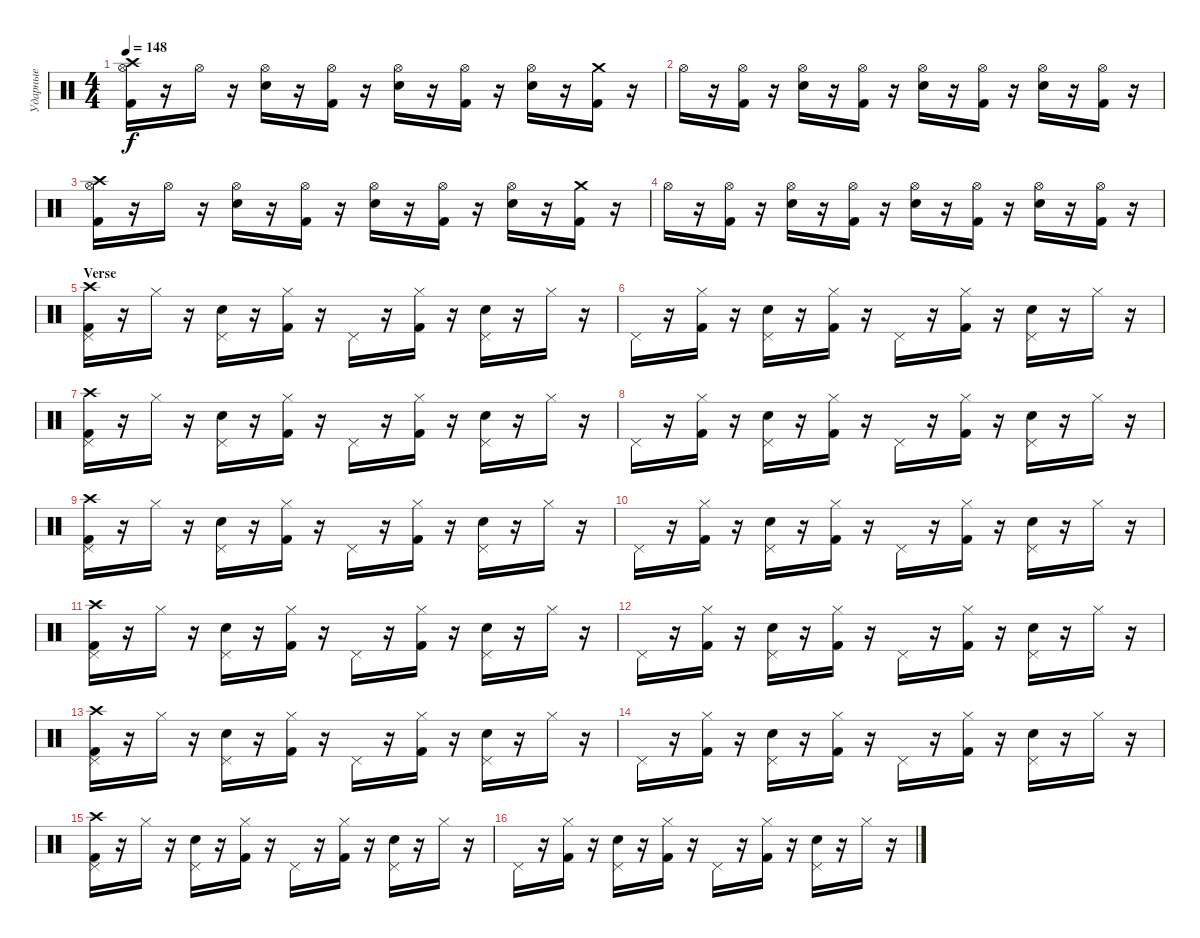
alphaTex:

\track ("Ударные" "Ударные") {instrument percussion}
\staff {score}
\articulation defaults
\ts (4 4)
\tempo 148
\clef neutral
\ks c
("Crash high (hit)" "Hi-Hat (open)" "Kick (hit) 2").16{dy f} r.16 "Hi-Hat (open)".16 r.16 ("Hi-Hat (open)" "Electric Snare (hit)").16 r.16 ("Hi-Hat (open)" "Kick (hit) 2").16 r.16 ("Hi-Hat (open)" "Electric Snare (hit)").16 r.16 ("Hi-Hat (open)" "Kick (hit) 2").16 r.16 ("Hi-Hat (open)" "Electric Snare (hit)").16 r.16 ("Crash medium (hit)" "Kick (hit) 2").16 r.16 |
"Hi-Hat (open)".16 r.16 ("Hi-Hat (open)" "Kick (hit) 2").16 r.16 ("Hi-Hat (open)" "Electric Snare (hit)").16 r.16 ("Hi-Hat (open)" "Kick (hit) 2").16 r.16 ("Hi-Hat (open)" "Electric Snare (hit)").16 r.16 ("Hi-Hat (open)" "Kick (hit) 2").16 r.16 ("Hi-Hat (open)" "Electric Snare (hit)").16 r.16 ("Hi-Hat (open)" "Kick (hit) 2").16 r.16 |
("Crash high (hit)" "Hi-Hat (open)" "Kick (hit) 2").16 r.16 "Hi-Hat (open)".16 r.16 ("Hi-Hat (open)" "Electric Snare (hit)").16 r.16 ("Hi-Hat (open)" "Kick (hit) 2").16 r.16 ("Hi-Hat (open)" "Electric Snare (hit)").16 r.16 ("Hi-Hat (open)" "Kick (hit) 2").16 r.16 ("Hi-Hat (open)" "Electric Snare (hit)").16 r.16 ("Crash medium (hit)" "Kick (hit) 2").16 r.16 |
"Hi-Hat (open)".16 r.16 ("Hi-Hat (open)" "Kick (hit) 2").16 r.16 ("Hi-Hat (open)" "Electric Snare (hit)").16 r.16 ("Hi-Hat (open)" "Kick (hit) 2").16 r.16 ("Hi-Hat (open)" "Electric Snare (hit)").16 r.16 ("Hi-Hat (open)" "Kick (hit) 2").16 r.16 ("Hi-Hat (open)" "Electric Snare (hit)").16 r.16 ("Hi-Hat (open)" "Kick (hit) 2").16 r.16 |
\section ("" "Verse")
("Crash high (hit)" "Pedal Hi-Hat (hit)" "Kick (hit) 2").16 r.16 "Hi-Hat (closed)".16 r.16 ("Pedal Hi-Hat (hit)" "Electric Snare (hit)").16 r.16 ("Hi-Hat (closed)" "Kick (hit) 2").16 r.16 "Pedal Hi-Hat (hit)".16 r.16 ("Hi-Hat (closed)" "Kick (hit) 2").16 r.16 ("Pedal Hi-Hat (hit)" "Electric Snare (hit)").16 r.16 "Hi-Hat (closed)".16 r.16 |
"Pedal Hi-Hat (hit)".16 r.16 ("Hi-Hat (closed)" "Kick (hit) 2").16 r.16 ("Pedal Hi-Hat (hit)" "Electric Snare (hit)").16 r.16 ("Hi-Hat (closed)" "Kick (hit) 2").16 r.16 "Pedal Hi-Hat (hit)".16 r.16 ("Hi-Hat (closed)" "Kick (hit) 2").16 r.16 ("Pedal Hi-Hat (hit)" "Electric Snare (hit)").16 r.16 "Hi-Hat (closed)".16 r.16 |
("Crash high (hit)" "Pedal Hi-Hat (hit)" "Kick (hit) 2").16 r.16 "Hi-Hat (closed)".16 r.16 ("Pedal Hi-Hat (hit)" "Electric Snare (hit)").16 r.16 ("Hi-Hat (closed)" "Kick (hit) 2").16 r.16 "Pedal Hi-Hat (hit)".16 r.16 ("Hi-Hat (closed)" "Kick (hit) 2").16 r.16 ("Pedal Hi-Hat (hit)" "Electric Snare (hit)").16 r.16 "Hi-Hat (closed)".16 r.16 |
"Pedal Hi-Hat (hit)".16 r.16 ("Hi-Hat (closed)" "Kick (hit) 2").16 r.16 ("Pedal Hi-Hat (hit)" "Electric Snare (hit)").16 r.16 ("Hi-Hat (closed)" "Kick (hit) 2").16 r.16 "Pedal Hi-Hat (hit)".16 r.16 ("Hi-Hat (closed)" "Kick (hit) 2").16 r.16 ("Pedal Hi-Hat (hit)" "Electric Snare (hit)").16 r.16 "Hi-Hat (closed)".16 r.16 |
("Crash high (hit)" "Pedal Hi-Hat (hit)" "Kick (hit) 2").16 r.16 "Hi-Hat (closed)".16 r.16 ("Pedal Hi-Hat (hit)" "Electric Snare (hit)").16 r.16 ("Hi-Hat (closed)" "Kick (hit) 2").16 r.16 "Pedal Hi-Hat (hit)".16 r.16 ("Hi-Hat (closed)" "Kick (hit) 2").16 r.16 ("Pedal Hi-Hat (hit)" "Electric Snare (hit)").16 r.16 "Hi-Hat (closed)".16 r.16 |
"Pedal Hi-Hat (hit)".16 r.16 ("Hi-Hat (closed)" "Kick (hit) 2").16 r.16 ("Pedal Hi-Hat (hit)" "Electric Snare (hit)").16 r.16 ("Hi-Hat (closed)" "Kick (hit) 2").16 r.16 "Pedal Hi-Hat (hit)".16 r.16 ("Hi-Hat (closed)" "Kick (hit) 2").16 r.16 ("Pedal Hi-Hat (hit)" "Electric Snare (hit)").16 r.16 "Hi-Hat (closed)".16 r.16 |
("Crash high (hit)" "Pedal Hi-Hat (hit)" "Kick (hit) 2").16 r.16 "Hi-Hat (closed)".16 r.16 ("Pedal Hi-Hat (hit)" "Electric Snare (hit)").16 r.16 ("Hi-Hat (closed)" "Kick (hit) 2").16 r.16 "Pedal Hi-Hat (hit)".16 r.16 ("Hi-Hat (closed)" "Kick (hit) 2").16 r.16 ("Pedal Hi-Hat (hit)" "Electric Snare (hit)").16 r.16 "Hi-Hat (closed)".16 r.16 |
"Pedal Hi-Hat (hit)".16 r.16 ("Hi-Hat (closed)" "Kick (hit) 2").16 r.16 ("Pedal Hi-Hat (hit)" "Electric Snare (hit)").16 r.16 ("Hi-Hat (closed)" "Kick (hit) 2").16 r.16 "Pedal Hi-Hat (hit)".16 r.16 ("Hi-Hat (closed)" "Kick (hit) 2").16 r.16 ("Pedal Hi-Hat (hit)" "Electric Snare (hit)").16 r.16 "Hi-Hat (closed)".16 r.16 |
("Crash high (hit)" "Pedal Hi-Hat (hit)" "Kick (hit) 2").16 r.16 "Hi-Hat (closed)".16 r.16 ("Pedal Hi-Hat (hit)" "Electric Snare (hit)").16 r.16 ("Hi-Hat (closed)" "Kick (hit) 2").16 r.16 "Pedal Hi-Hat (hit)".16 r.16 ("Hi-Hat (closed)" "Kick (hit) 2").16 r.16 ("Pedal Hi-Hat (hit)" "Electric Snare (hit)").16 r.16 "Hi-Hat (closed)".16 r.16 |
"Pedal Hi-Hat (hit)".16 r.16 ("Hi-Hat (closed)" "Kick (hit) 2").16 r.16 ("Pedal Hi-Hat (hit)" "Electric Snare (hit)").16 r.16 ("Hi-Hat (closed)" "Kick (hit) 2").16 r.16 "Pedal Hi-Hat (hit)".16 r.16 ("Hi-Hat (closed)" "Kick (hit) 2").16 r.16 ("Pedal Hi-Hat (hit)" "Electric Snare (hit)").16 r.16 "Hi-Hat (closed)".16 r.16 |
("Crash high (hit)" "Pedal Hi-Hat (hit)" "Kick (hit) 2").16 r.16 "Hi-Hat (closed)".16 r.16 ("Pedal Hi-Hat (hit)" "Electric Snare (hit)").16 r.16 ("Hi-Hat (closed)" "Kick (hit) 2").16 r.16 "Pedal Hi-Hat (hit)".16 r.16 ("Hi-Hat (closed)" "Kick (hit) 2").16 r.16 ("Pedal Hi-Hat (hit)" "Electric Snare (hit)").16 r.16 "Hi-Hat (closed)".16 r.16 |
"Pedal Hi-Hat (hit)".16 r.16 ("Hi-Hat (closed)" "Kick (hit) 2").16 r.16 ("Pedal Hi-Hat (hit)" "Electric Snare (hit)").16 r.16 ("Hi-Hat (closed)" "Kick (hit) 2").16 r.16 "Pedal Hi-Hat (hit)".16 r.16 ("Hi-Hat (closed)" "Kick (hit) 2").16 r.16 ("Pedal Hi-Hat (hit)" "Electric Snare (hit)").16 r.16 "Hi-Hat (closed)".16 r.16
